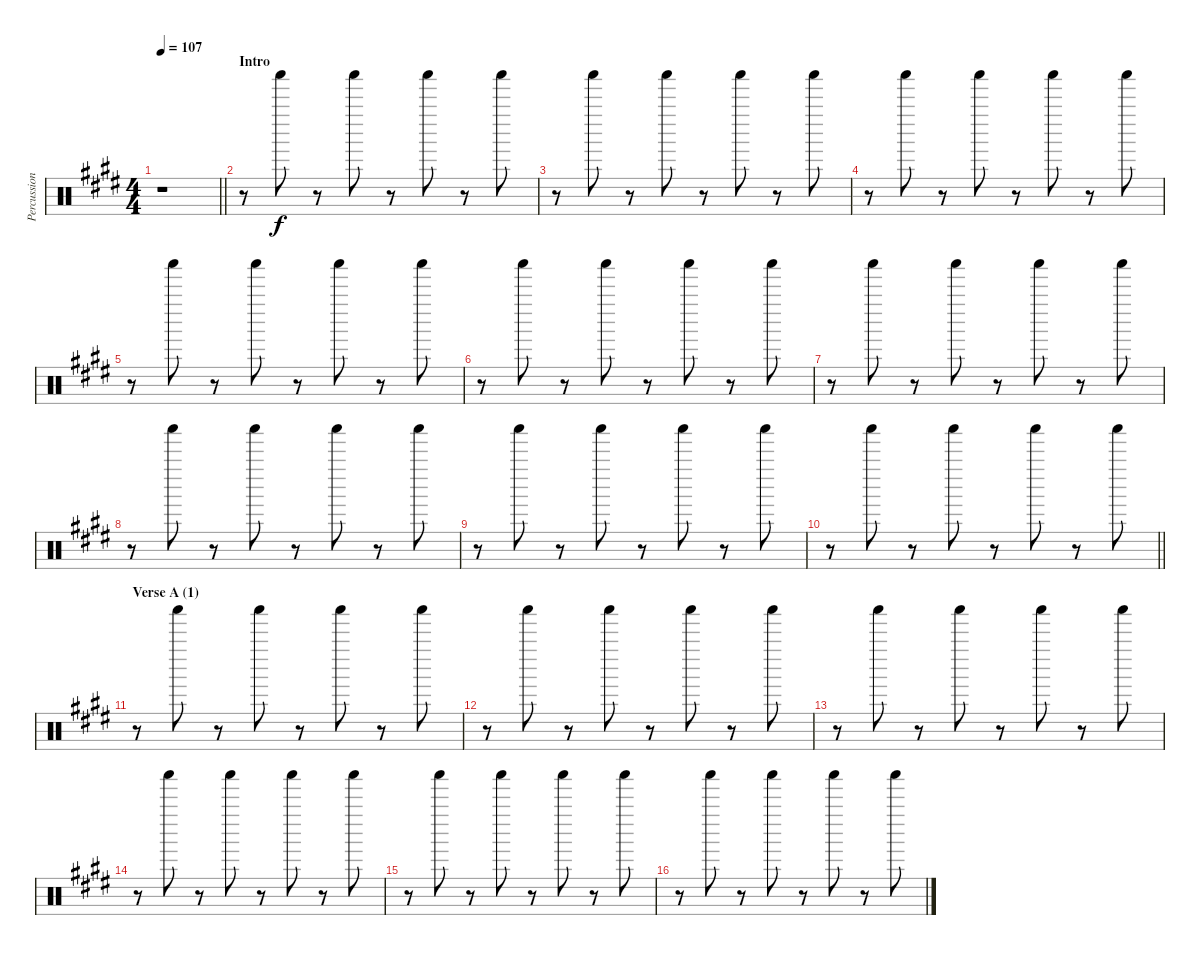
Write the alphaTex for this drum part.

\track ("Percussion" "Percussion") {instrument percussion}
\staff {score}
\articulation defaults
\ts (4 4)
\tempo 107
\clef neutral
\barLineRight lightlight
\ks e
r.1{dy f} |
\section ("" "Intro")
r.8 "Shaker (hit)".8 r.8 "Shaker (hit)".8 r.8 "Shaker (hit)".8 r.8 "Shaker (hit)".8 |
r.8 "Shaker (hit)".8 r.8 "Shaker (hit)".8 r.8 "Shaker (hit)".8 r.8 "Shaker (hit)".8 |
r.8 "Shaker (hit)".8 r.8 "Shaker (hit)".8 r.8 "Shaker (hit)".8 r.8 "Shaker (hit)".8 |
r.8 "Shaker (hit)".8 r.8 "Shaker (hit)".8 r.8 "Shaker (hit)".8 r.8 "Shaker (hit)".8 |
r.8 "Shaker (hit)".8 r.8 "Shaker (hit)".8 r.8 "Shaker (hit)".8 r.8 "Shaker (hit)".8 |
r.8 "Shaker (hit)".8 r.8 "Shaker (hit)".8 r.8 "Shaker (hit)".8 r.8 "Shaker (hit)".8 |
r.8 "Shaker (hit)".8 r.8 "Shaker (hit)".8 r.8 "Shaker (hit)".8 r.8 "Shaker (hit)".8 |
r.8 "Shaker (hit)".8 r.8 "Shaker (hit)".8 r.8 "Shaker (hit)".8 r.8 "Shaker (hit)".8 |
\barLineRight lightlight
r.8 "Shaker (hit)".8 r.8 "Shaker (hit)".8 r.8 "Shaker (hit)".8 r.8 "Shaker (hit)".8 |
\section ("" "Verse A (1)")
r.8 "Shaker (hit)".8 r.8 "Shaker (hit)".8 r.8 "Shaker (hit)".8 r.8 "Shaker (hit)".8 |
r.8 "Shaker (hit)".8 r.8 "Shaker (hit)".8 r.8 "Shaker (hit)".8 r.8 "Shaker (hit)".8 |
r.8 "Shaker (hit)".8 r.8 "Shaker (hit)".8 r.8 "Shaker (hit)".8 r.8 "Shaker (hit)".8 |
r.8 "Shaker (hit)".8 r.8 "Shaker (hit)".8 r.8 "Shaker (hit)".8 r.8 "Shaker (hit)".8 |
r.8 "Shaker (hit)".8 r.8 "Shaker (hit)".8 r.8 "Shaker (hit)".8 r.8 "Shaker (hit)".8 |
r.8 "Shaker (hit)".8 r.8 "Shaker (hit)".8 r.8 "Shaker (hit)".8 r.8 "Shaker (hit)".8
